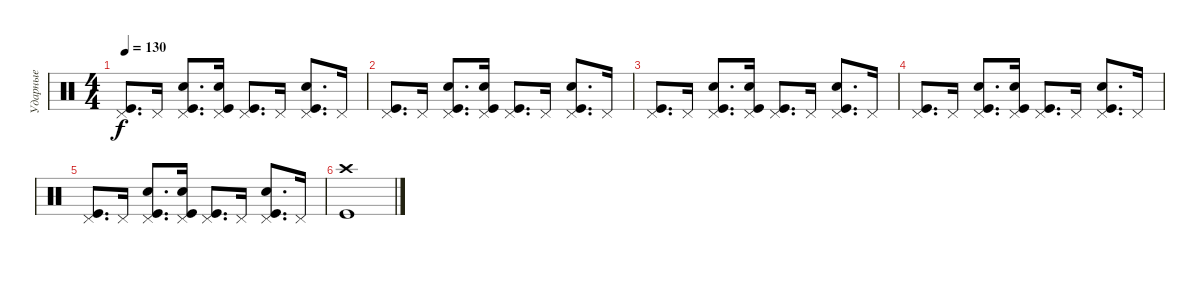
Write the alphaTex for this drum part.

\track ("Ударные" "Ударные") {instrument percussion}
\staff {score}
\articulation defaults
\ts (4 4)
\tempo 130
\clef neutral
\ks c
("Pedal Hi-Hat (hit)" "Kick (hit)").8{d dy f} "Pedal Hi-Hat (hit)".16 ("Pedal Hi-Hat (hit)" "Kick (hit)" "Snare (hit) 2").8{d} ("Pedal Hi-Hat (hit)" "Snare (hit) 2" "Kick (hit)").16 ("Pedal Hi-Hat (hit)" "Kick (hit)").8{d} "Pedal Hi-Hat (hit)".16 ("Pedal Hi-Hat (hit)" "Kick (hit)" "Snare (hit) 2").8{d} "Pedal Hi-Hat (hit)".16 |
("Pedal Hi-Hat (hit)" "Kick (hit)").8{d} "Pedal Hi-Hat (hit)".16 ("Pedal Hi-Hat (hit)" "Kick (hit)" "Snare (hit) 2").8{d} ("Pedal Hi-Hat (hit)" "Snare (hit) 2" "Kick (hit)").16 ("Pedal Hi-Hat (hit)" "Kick (hit)").8{d} "Pedal Hi-Hat (hit)".16 ("Pedal Hi-Hat (hit)" "Kick (hit)" "Snare (hit) 2").8{d} "Pedal Hi-Hat (hit)".16 |
("Pedal Hi-Hat (hit)" "Kick (hit)").8{d} "Pedal Hi-Hat (hit)".16 ("Pedal Hi-Hat (hit)" "Kick (hit)" "Snare (hit) 2").8{d} ("Pedal Hi-Hat (hit)" "Snare (hit) 2" "Kick (hit)").16 ("Pedal Hi-Hat (hit)" "Kick (hit)").8{d} "Pedal Hi-Hat (hit)".16 ("Pedal Hi-Hat (hit)" "Kick (hit)" "Snare (hit) 2").8{d} "Pedal Hi-Hat (hit)".16 |
("Pedal Hi-Hat (hit)" "Kick (hit)").8{d} "Pedal Hi-Hat (hit)".16 ("Pedal Hi-Hat (hit)" "Kick (hit)" "Snare (hit) 2").8{d} ("Pedal Hi-Hat (hit)" "Snare (hit) 2" "Kick (hit)").16 ("Pedal Hi-Hat (hit)" "Kick (hit)").8{d} "Pedal Hi-Hat (hit)".16 ("Pedal Hi-Hat (hit)" "Kick (hit)" "Snare (hit) 2").8{d} "Pedal Hi-Hat (hit)".16 |
("Pedal Hi-Hat (hit)" "Kick (hit)").8{d} "Pedal Hi-Hat (hit)".16 ("Pedal Hi-Hat (hit)" "Kick (hit)" "Snare (hit) 2").8{d} ("Pedal Hi-Hat (hit)" "Snare (hit) 2" "Kick (hit)").16 ("Pedal Hi-Hat (hit)" "Kick (hit)").8{d} "Pedal Hi-Hat (hit)".16 ("Pedal Hi-Hat (hit)" "Kick (hit)" "Snare (hit) 2").8{d} "Pedal Hi-Hat (hit)".16 |
("Crash high (hit)" "Kick (hit)").1
